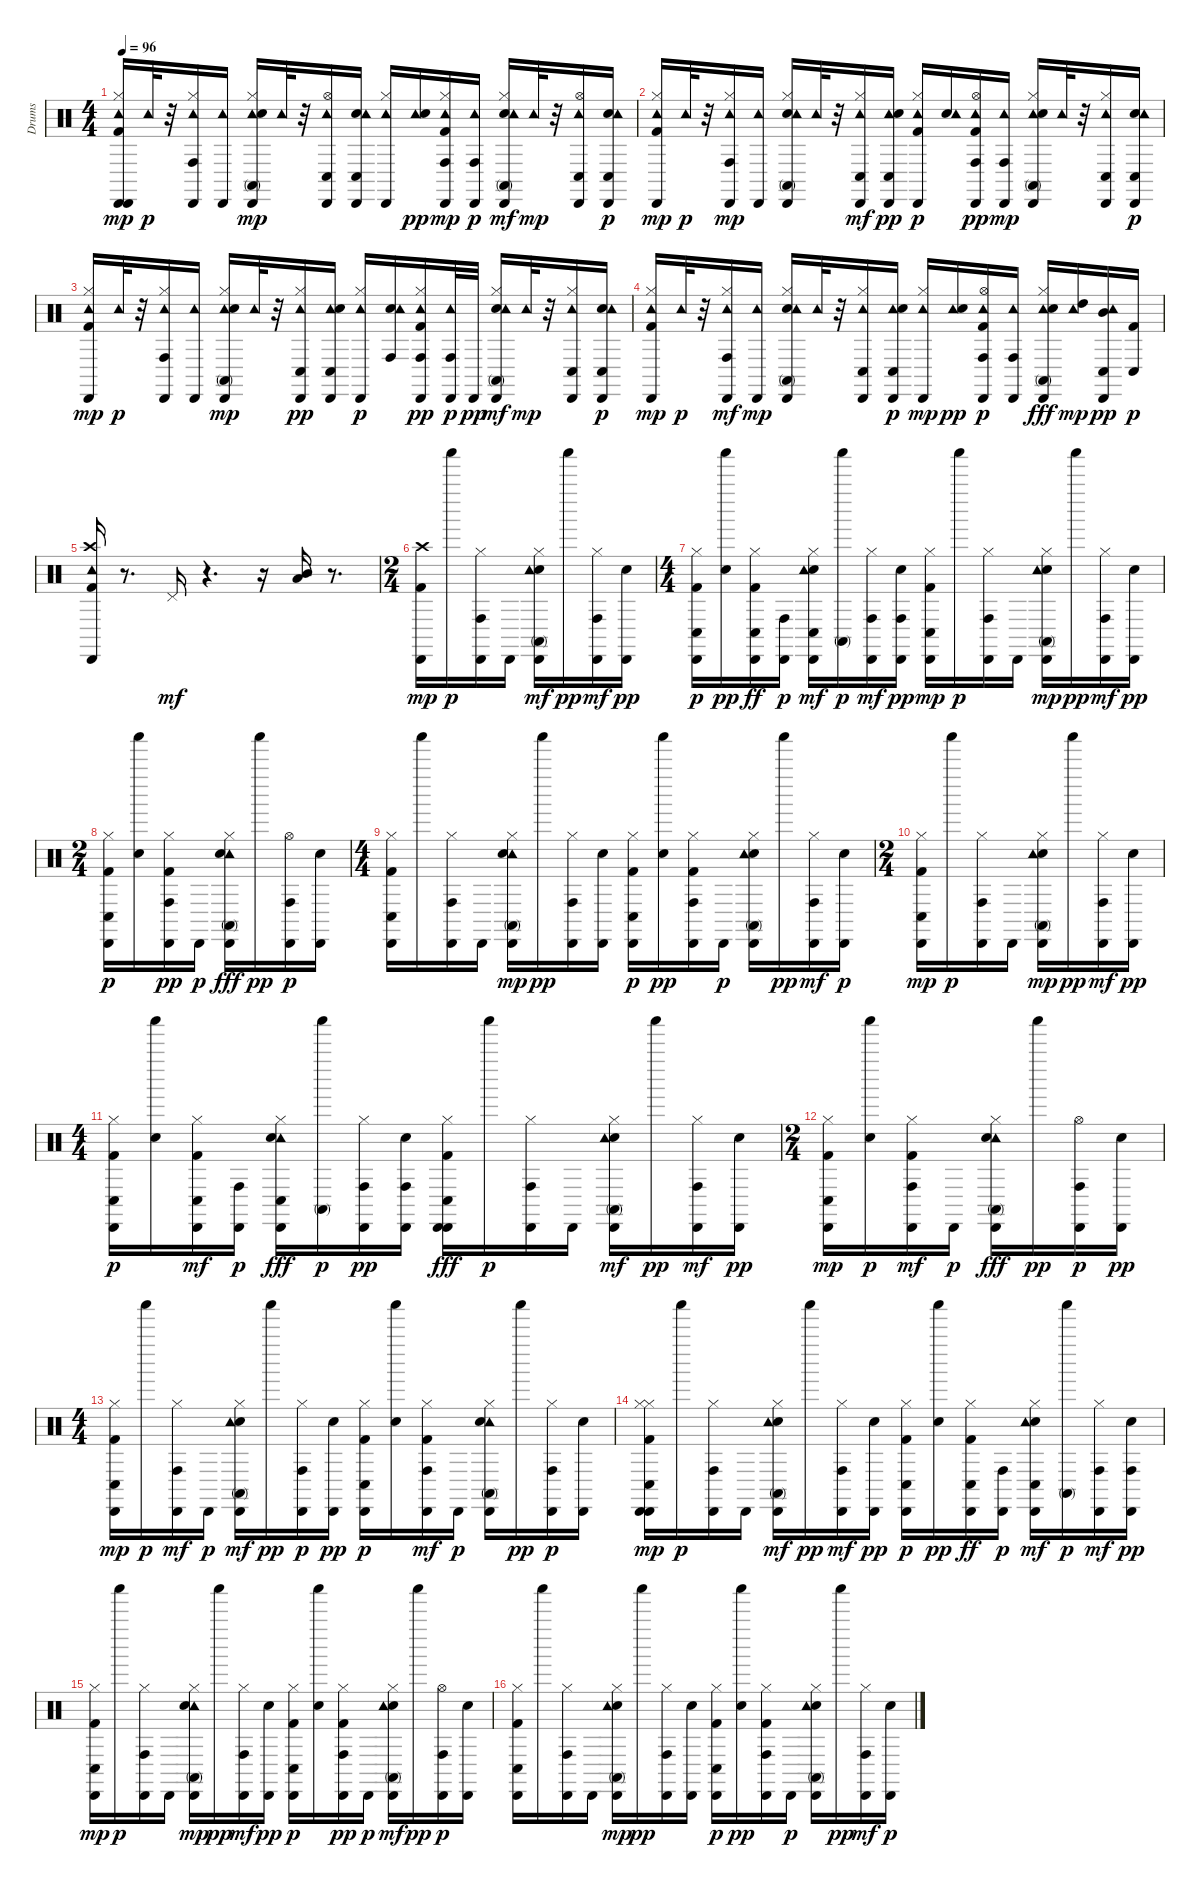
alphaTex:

\track ("Drums" "Drums") {instrument percussion}
\staff {score}
\articulation defaults
\ts (4 4)
\tempo 96
\clef neutral
\ks c
("Cabasa (hit)" "Hi-Hat (closed)" "Kick (hit) 2" "Cabasa (hit)" "Tambourine (hit)").16{dy mp} "Tambourine (hit)".32{dy p} r.32 ("Hi-Hat (closed)" "Conga high (hit)" "Tambourine (hit)" "Cabasa (hit)").16 ("Tambourine (hit)" "Cabasa (hit)").16 ("Tambourine (hit)" "Hi-Hat (closed)" "Snare (hit) 2" "Cabasa (hit)" "Conga high (mute)").16{dy mp} "Tambourine (hit)".32 r.32 ("Cabasa (hit)" "Tambourine (hit)" "Hi-Hat (open)" "Conga low (hit)").16 ("Cabasa (hit)" "Conga low (hit)" "Electric Snare (hit)" "Tambourine (hit)").16 ("Cabasa (hit)" "Hi-Hat (closed)" "Tambourine (hit)").16 ("Tambourine (hit)" "Electric Snare (hit)").16{dy pp} ("Cabasa (hit)" "Conga high (hit)" "Hi-Hat (closed)" "Kick (hit) 2" "Tambourine (hit)").16{dy mp} ("Tambourine (hit)" "Conga high (hit)" "Cabasa (hit)").16{dy p} ("Hi-Hat (closed)" "Cabasa (hit)" "Snare (hit) 2" "Conga high (mute)" "Tambourine (hit)").16{dy mf} "Tambourine (hit)".32{dy mp} r.32 ("Cabasa (hit)" "Hi-Hat (open)" "Tambourine (hit)" "Conga low (hit)").16 ("Cabasa (hit)" "Electric Snare (hit)" "Tambourine (hit)" "Conga low (hit)").16{dy p} |
("Hi-Hat (closed)" "Kick (hit) 2" "Tambourine (hit)" "Cabasa (hit)").16{dy mp} "Tambourine (hit)".32{dy p} r.32 ("Cabasa (hit)" "Conga high (hit)" "Hi-Hat (closed)" "Tambourine (hit)").16{dy mp} ("Cabasa (hit)" "Tambourine (hit)").16 ("Hi-Hat (closed)" "Snare (hit) 2" "Conga high (mute)" "Tambourine (hit)" "Cabasa (hit)").16 "Tambourine (hit)".32 r.32 ("Cabasa (hit)" "Tambourine (hit)" "Conga low (hit)" "Hi-Hat (closed)").16{dy mf} ("Tambourine (hit)" "Conga low (hit)" "Electric Snare (hit)" "Cabasa (hit)").16{dy pp} ("Kick (hit) 2" "Tambourine (hit)" "Hi-Hat (closed)" "Cabasa (hit)").16{dy p} ("Electric Snare (hit)" "Tambourine (hit)").16 ("Conga high (hit)" "Kick (hit) 2" "Hi-Hat (open)" "Tambourine (hit)" "Cabasa (hit)").16{dy pp} ("Cabasa (hit)" "Tambourine (hit)" "Conga high (hit)").16{dy mp} ("Cabasa (hit)" "Tambourine (hit)" "Hi-Hat (closed)" "Snare (hit) 2" "Conga high (mute)").16 "Tambourine (hit)".32 r.32 ("Cabasa (hit)" "Hi-Hat (closed)" "Tambourine (hit)" "Conga low (hit)").16 ("Electric Snare (hit)" "Tambourine (hit)" "Conga low (hit)" "Cabasa (hit)").16{dy p} |
("Cabasa (hit)" "Hi-Hat (closed)" "Kick (hit) 2" "Tambourine (hit)").16{dy mp} "Tambourine (hit)".32{dy p} r.32 ("Hi-Hat (closed)" "Conga high (hit)" "Tambourine (hit)" "Cabasa (hit)").16 ("Tambourine (hit)" "Cabasa (hit)").16 ("Tambourine (hit)" "Hi-Hat (closed)" "Snare (hit) 2" "Conga high (mute)" "Cabasa (hit)").16{dy mp} "Tambourine (hit)".32 r.32 ("Conga low (hit)" "Hi-Hat (closed)" "Tambourine (hit)" "Cabasa (hit)").16{dy pp} ("Tambourine (hit)" "Conga low (hit)" "Electric Snare (hit)" "Cabasa (hit)").16 ("Hi-Hat (closed)" "Tambourine (hit)" "Cabasa (hit)").16{dy p} ("Conga high (hit)" "Electric Snare (hit)" "Tambourine (hit)").16 ("Tambourine (hit)" "Kick (hit) 2" "Conga high (hit)" "Hi-Hat (closed)" "Cabasa (hit)").16{dy pp} ("Conga high (hit)" "Tambourine (hit)" "Cabasa (hit)").32{dy p} "Cabasa (hit)".32{dy pp} ("Cabasa (hit)" "Conga high (mute)" "Snare (hit) 2" "Hi-Hat (closed)" "Tambourine (hit)").16{dy mf} "Tambourine (hit)".32{dy mp} r.32 ("Cabasa (hit)" "Conga low (hit)" "Hi-Hat (closed)" "Tambourine (hit)").16 ("Electric Snare (hit)" "Conga low (hit)" "Tambourine (hit)" "Cabasa (hit)").16{dy p} |
("Kick (hit) 2" "Hi-Hat (closed)" "Tambourine (hit)" "Cabasa (hit)").16{dy mp} "Tambourine (hit)".32{dy p} r.32 ("Cabasa (hit)" "Tambourine (hit)" "Conga high (hit)" "Hi-Hat (closed)").16{dy mf} ("Cabasa (hit)" "Tambourine (hit)").16{dy mp} ("Snare (hit) 2" "Conga high (mute)" "Hi-Hat (closed)" "Tambourine (hit)" "Cabasa (hit)").16 "Tambourine (hit)".32 r.32 ("Cabasa (hit)" "Hi-Hat (closed)" "Tambourine (hit)" "Conga low (hit)").16 ("Cabasa (hit)" "Tambourine (hit)" "Conga low (hit)" "Snare (hit) 2").16{dy p} ("Cabasa (hit)" "Tambourine (hit)" "Hi-Hat (closed)").16{dy mp} ("Tambourine (hit)" "Electric Snare (hit)").16{dy pp} ("Tambourine (hit)" "Kick (hit) 2" "Hi-Hat (open)" "Cabasa (hit)" "Conga high (hit)").16{dy p} ("Tambourine (hit)" "Conga high (hit)" "Cabasa (hit)").16 ("Cabasa (hit)" "Conga high (mute)" "Tambourine (hit)" "Snare (hit) 2" "Hi-Hat (closed)").16{dy fff} ("High Tom (hit)" "Tambourine (hit)").16{dy mp} ("Tambourine (hit)" "Conga low (hit)" "Mid Tom (hit)" "Cabasa (hit)").16{dy pp} ("Conga low (hit)" "Kick (hit) 2").16{dy p} |
("Cabasa (hit)" "Crash high (hit)" "Kick (hit) 2" "Tambourine (hit)").16 r.8{d} "Pedal Hi-Hat (hit)".16{dy mf} r.4{d} r.16 ("Mid Tom (hit)" "Low Tom (hit)").16 r.8{d} |
\ts (2 4)
("Kick (hit) 2" "Cabasa (hit)" "Crash high (hit)").16{dy mp} "Shaker (hit)".16{dy p} ("Hi-Hat (closed)" "Cabasa (hit)" "Conga high (hit)").16 "Cabasa (hit)".16 ("Conga high (mute)" "Hi-Hat (closed)" "Snare (hit) 2" "Cabasa (hit)" "Tambourine (hit)").16{dy mf} "Shaker (hit)".16{dy pp} ("Cabasa (hit)" "Conga high (hit)" "Hi-Hat (closed)").16{dy mf} ("Cabasa (hit)" "Electric Snare (hit)").16{dy pp} |
\ts (4 4)
("Cabasa (hit)" "Hi-Hat (closed)" "Kick (hit) 2" "Conga low (hit)").16{dy p} ("Shaker (hit)" "Electric Snare (hit)").16{dy pp} ("Conga low (hit)" "Cabasa (hit)" "Hi-Hat (closed)" "Kick (hit) 2").16{dy ff} ("Conga high (hit)" "Cabasa (hit)").16{dy p} ("Hi-Hat (closed)" "Conga low (hit)" "Cabasa (hit)" "Snare (hit) 2" "Tambourine (hit)").16{dy mf} ("Shaker (hit)" "Conga high (mute)").16{dy p} ("Conga high (hit)" "Cabasa (hit)" "Hi-Hat (closed)").16{dy mf} ("Cabasa (hit)" "Conga high (hit)" "Electric Snare (hit)").16{dy pp} ("Conga low (hit)" "Hi-Hat (closed)" "Kick (hit) 2" "Cabasa (hit)").16{dy mp} "Shaker (hit)".16{dy p} ("Cabasa (hit)" "Hi-Hat (closed)" "Conga high (hit)").16 "Cabasa (hit)".16 ("Conga high (mute)" "Snare (hit) 2" "Tambourine (hit)" "Hi-Hat (closed)" "Cabasa (hit)").16{dy mp} "Shaker (hit)".16{dy pp} ("Conga high (hit)" "Cabasa (hit)" "Hi-Hat (closed)").16{dy mf} ("Electric Snare (hit)" "Cabasa (hit)").16{dy pp} |
\ts (2 4)
("Hi-Hat (closed)" "Kick (hit) 2" "Conga low (hit)" "Cabasa (hit)").16{dy p} ("Electric Snare (hit)" "Shaker (hit)").16 ("Conga high (hit)" "Kick (hit) 2" "Hi-Hat (closed)" "Cabasa (hit)").16{dy pp} "Cabasa (hit)".16{dy p} ("Cabasa (hit)" "Tambourine (hit)" "Conga high (mute)" "Snare (hit) 2" "Hi-Hat (closed)").16{dy fff} "Shaker (hit)".16{dy pp} ("Cabasa (hit)" "Hi-Hat (open)" "Conga high (hit)").16{dy p} ("Electric Snare (hit)" "Cabasa (hit)").16 |
\ts (4 4)
("Cabasa (hit)" "Kick (hit) 2" "Hi-Hat (closed)" "Conga low (hit)").16 "Shaker (hit)".16 ("Conga high (hit)" "Hi-Hat (closed)" "Cabasa (hit)").16 "Cabasa (hit)".16 ("Tambourine (hit)" "Hi-Hat (closed)" "Snare (hit) 2" "Conga high (mute)" "Cabasa (hit)").16{dy mp} "Shaker (hit)".16{dy pp} ("Hi-Hat (closed)" "Conga high (hit)" "Cabasa (hit)").16 ("Electric Snare (hit)" "Cabasa (hit)").16 ("Hi-Hat (closed)" "Kick (hit) 2" "Cabasa (hit)" "Conga low (hit)").16{dy p} ("Shaker (hit)" "Electric Snare (hit)").16{dy pp} ("Hi-Hat (closed)" "Conga high (hit)" "Kick (hit) 2" "Cabasa (hit)").16 "Cabasa (hit)".16{dy p} ("Cabasa (hit)" "Snare (hit) 2" "Hi-Hat (closed)" "Tambourine (hit)" "Conga high (mute)").16 "Shaker (hit)".16{dy pp} ("Cabasa (hit)" "Conga high (hit)" "Hi-Hat (closed)").16{dy mf} ("Electric Snare (hit)" "Cabasa (hit)").16{dy p} |
\ts (2 4)
("Conga low (hit)" "Hi-Hat (closed)" "Kick (hit) 2" "Cabasa (hit)").16{dy mp} "Shaker (hit)".16{dy p} ("Cabasa (hit)" "Hi-Hat (closed)" "Conga high (hit)").16 "Cabasa (hit)".16 ("Conga high (mute)" "Snare (hit) 2" "Hi-Hat (closed)" "Tambourine (hit)" "Cabasa (hit)").16{dy mp} "Shaker (hit)".16{dy pp} ("Cabasa (hit)" "Conga high (hit)" "Hi-Hat (closed)").16{dy mf} ("Cabasa (hit)" "Electric Snare (hit)").16{dy pp} |
\ts (4 4)
("Cabasa (hit)" "Hi-Hat (closed)" "Kick (hit) 2" "Conga low (hit)").16{dy p} ("Electric Snare (hit)" "Shaker (hit)").16 ("Conga low (hit)" "Kick (hit) 2" "Cabasa (hit)" "Hi-Hat (closed)").16{dy mf} ("Conga high (hit)" "Cabasa (hit)").16{dy p} ("Cabasa (hit)" "Conga low (hit)" "Tambourine (hit)" "Hi-Hat (closed)" "Snare (hit) 2").16{dy fff} ("Shaker (hit)" "Conga high (mute)").16{dy p} ("Conga high (hit)" "Hi-Hat (closed)" "Cabasa (hit)").16{dy pp} ("Conga high (hit)" "Cabasa (hit)" "Electric Snare (hit)").16 ("Conga low (hit)" "Cabasa (hit)" "Hi-Hat (closed)" "Cabasa (hit)" "Kick (hit) 2").16{dy fff} "Shaker (hit)".16{dy p} ("Hi-Hat (closed)" "Conga high (hit)" "Cabasa (hit)").16 "Cabasa (hit)".16 ("Conga high (mute)" "Cabasa (hit)" "Snare (hit) 2" "Tambourine (hit)" "Hi-Hat (closed)").16{dy mf} "Shaker (hit)".16{dy pp} ("Cabasa (hit)" "Conga high (hit)" "Hi-Hat (closed)").16{dy mf} ("Cabasa (hit)" "Electric Snare (hit)").16{dy pp} |
\ts (2 4)
("Cabasa (hit)" "Hi-Hat (closed)" "Conga low (hit)" "Kick (hit) 2").16{dy mp} ("Electric Snare (hit)" "Shaker (hit)").16{dy p} ("Cabasa (hit)" "Conga high (hit)" "Kick (hit) 2" "Hi-Hat (closed)").16{dy mf} "Cabasa (hit)".16{dy p} ("Conga high (mute)" "Cabasa (hit)" "Tambourine (hit)" "Snare (hit) 2" "Hi-Hat (closed)").16{dy fff} "Shaker (hit)".16{dy pp} ("Cabasa (hit)" "Hi-Hat (open)" "Conga high (hit)").16{dy p} ("Cabasa (hit)" "Electric Snare (hit)").16{dy pp} |
\ts (4 4)
("Hi-Hat (closed)" "Kick (hit) 2" "Conga low (hit)" "Cabasa (hit)").16{dy mp} "Shaker (hit)".16{dy p} ("Cabasa (hit)" "Conga high (hit)" "Hi-Hat (closed)").16{dy mf} "Cabasa (hit)".16{dy p} ("Snare (hit) 2" "Hi-Hat (closed)" "Conga high (mute)" "Cabasa (hit)" "Tambourine (hit)").16{dy mf} "Shaker (hit)".16{dy pp} ("Cabasa (hit)" "Hi-Hat (closed)" "Conga high (hit)").16{dy p} ("Electric Snare (hit)" "Cabasa (hit)").16{dy pp} ("Hi-Hat (closed)" "Kick (hit) 2" "Cabasa (hit)" "Conga low (hit)").16{dy p} ("Electric Snare (hit)" "Shaker (hit)").16 ("Conga high (hit)" "Kick (hit) 2" "Cabasa (hit)" "Hi-Hat (closed)").16{dy mf} "Cabasa (hit)".16{dy p} ("Cabasa (hit)" "Tambourine (hit)" "Hi-Hat (closed)" "Snare (hit) 2" "Conga high (mute)").16 "Shaker (hit)".16{dy pp} ("Cabasa (hit)" "Conga high (hit)" "Hi-Hat (closed)").16{dy p} ("Electric Snare (hit)" "Cabasa (hit)").16 |
("Cabasa (hit)" "Conga low (hit)" "Hi-Hat (closed)" "Kick (hit) 2" "Cabasa (hit)" "Hi-Hat (closed)").16{dy mp} "Shaker (hit)".16{dy p} ("Hi-Hat (closed)" "Cabasa (hit)" "Conga high (hit)").16 "Cabasa (hit)".16 ("Conga high (mute)" "Hi-Hat (closed)" "Snare (hit) 2" "Cabasa (hit)" "Tambourine (hit)").16{dy mf} "Shaker (hit)".16{dy pp} ("Cabasa (hit)" "Conga high (hit)" "Hi-Hat (closed)").16{dy mf} ("Cabasa (hit)" "Electric Snare (hit)").16{dy pp} ("Cabasa (hit)" "Hi-Hat (closed)" "Kick (hit) 2" "Conga low (hit)").16{dy p} ("Shaker (hit)" "Electric Snare (hit)").16{dy pp} ("Conga low (hit)" "Cabasa (hit)" "Hi-Hat (closed)" "Kick (hit) 2").16{dy ff} ("Conga high (hit)" "Cabasa (hit)").16{dy p} ("Hi-Hat (closed)" "Conga low (hit)" "Cabasa (hit)" "Snare (hit) 2" "Tambourine (hit)").16{dy mf} ("Shaker (hit)" "Conga high (mute)").16{dy p} ("Conga high (hit)" "Cabasa (hit)" "Hi-Hat (closed)").16{dy mf} ("Cabasa (hit)" "Conga high (hit)" "Electric Snare (hit)").16{dy pp} |
("Conga low (hit)" "Hi-Hat (closed)" "Kick (hit) 2" "Cabasa (hit)").16{dy mp} "Shaker (hit)".16{dy p} ("Cabasa (hit)" "Hi-Hat (closed)" "Conga high (hit)").16 "Cabasa (hit)".16 ("Tambourine (hit)" "Conga high (mute)" "Snare (hit) 2" "Hi-Hat (closed)" "Cabasa (hit)").16{dy mp} "Shaker (hit)".16{dy pp} ("Conga high (hit)" "Cabasa (hit)" "Hi-Hat (closed)").16{dy mf} ("Electric Snare (hit)" "Cabasa (hit)").16{dy pp} ("Hi-Hat (closed)" "Kick (hit) 2" "Conga low (hit)" "Cabasa (hit)").16{dy p} ("Electric Snare (hit)" "Shaker (hit)").16 ("Conga high (hit)" "Kick (hit) 2" "Hi-Hat (closed)" "Cabasa (hit)").16{dy pp} "Cabasa (hit)".16{dy p} ("Cabasa (hit)" "Conga high (mute)" "Snare (hit) 2" "Hi-Hat (closed)" "Tambourine (hit)").16{dy mf} "Shaker (hit)".16{dy pp} ("Cabasa (hit)" "Hi-Hat (open)" "Conga high (hit)").16{dy p} ("Electric Snare (hit)" "Cabasa (hit)").16 |
("Cabasa (hit)" "Kick (hit) 2" "Hi-Hat (closed)" "Conga low (hit)").16 "Shaker (hit)".16 ("Conga high (hit)" "Hi-Hat (closed)" "Cabasa (hit)").16 "Cabasa (hit)".16 ("Hi-Hat (closed)" "Snare (hit) 2" "Conga high (mute)" "Tambourine (hit)" "Cabasa (hit)").16{dy mp} "Shaker (hit)".16{dy pp} ("Hi-Hat (closed)" "Conga high (hit)" "Cabasa (hit)").16 ("Electric Snare (hit)" "Cabasa (hit)").16 ("Hi-Hat (closed)" "Kick (hit) 2" "Cabasa (hit)" "Conga low (hit)").16{dy p} ("Shaker (hit)" "Electric Snare (hit)").16{dy pp} ("Hi-Hat (closed)" "Conga high (hit)" "Kick (hit) 2" "Cabasa (hit)").16 "Cabasa (hit)".16{dy p} ("Cabasa (hit)" "Snare (hit) 2" "Tambourine (hit)" "Hi-Hat (closed)" "Conga high (mute)").16 "Shaker (hit)".16{dy pp} ("Cabasa (hit)" "Conga high (hit)" "Hi-Hat (closed)").16{dy mf} ("Electric Snare (hit)" "Cabasa (hit)").16{dy p}
